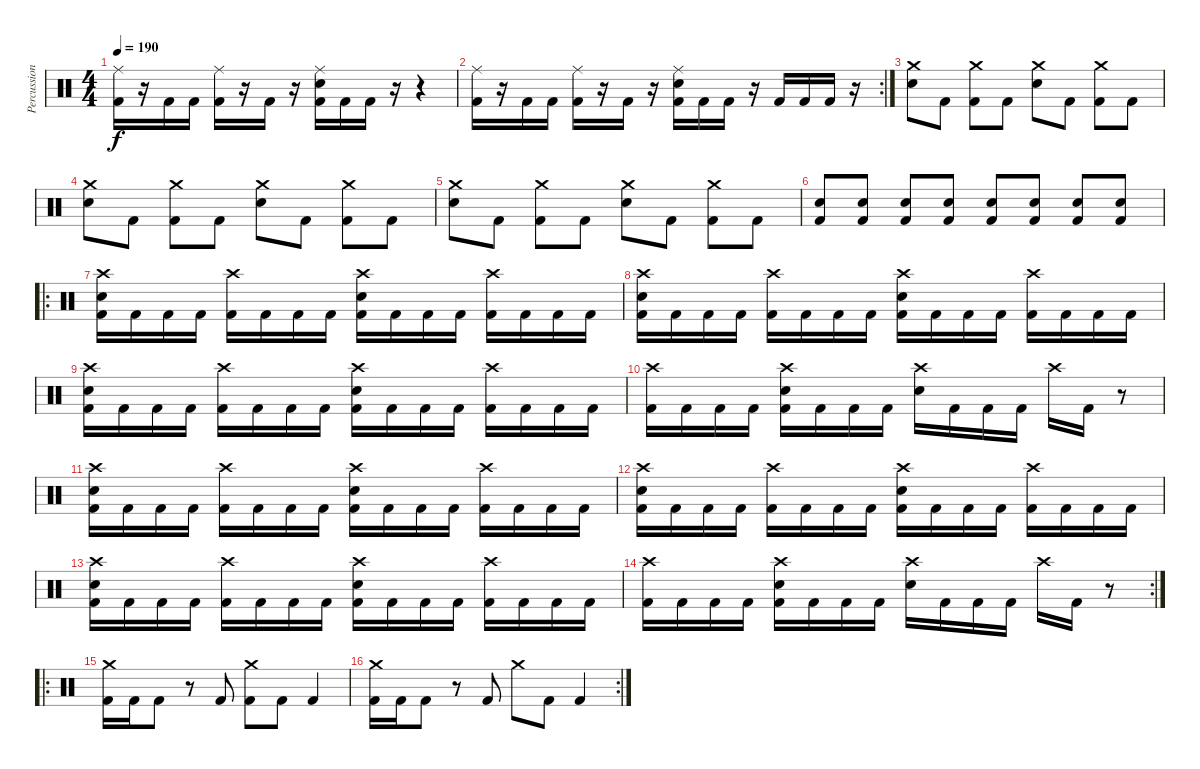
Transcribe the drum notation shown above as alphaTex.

\track ("Percussion" "Percussion") {instrument percussion}
\staff {score}
\articulation defaults
\ts (4 4)
\tempo 190
\clef neutral
\ks c
("Ride (middle)" "Kick (hit) 2").16{dy f} r.16 "Kick (hit) 2".16 "Kick (hit) 2".16 ("Ride (middle)" "Kick (hit) 2").16 r.16 "Kick (hit) 2".16 r.16 ("Ride (middle)" "Electric Snare (hit)" "Kick (hit) 2").16 "Kick (hit) 2".16 "Kick (hit) 2".16 r.16 r.4 |
\rc 2
("Ride (middle)" "Kick (hit) 2").16 r.16 "Kick (hit) 2".16 "Kick (hit) 2".16 ("Ride (middle)" "Kick (hit) 2").16 r.16 "Kick (hit) 2".16 r.16 ("Ride (middle)" "Electric Snare (hit)" "Kick (hit) 2").16 "Kick (hit) 2".16 "Kick (hit) 2".16 r.16 "Kick (hit) 2".16 "Kick (hit) 2".16 "Kick (hit) 2".16 r.16 |
("Crash medium (hit)" "Electric Snare (hit)").8 "Kick (hit) 2".8 ("Crash medium (hit)" "Kick (hit) 2").8 "Kick (hit) 2".8 ("Crash medium (hit)" "Electric Snare (hit)").8 "Kick (hit) 2".8 ("Crash medium (hit)" "Kick (hit) 2").8 "Kick (hit) 2".8 |
("Crash medium (hit)" "Electric Snare (hit)").8 "Kick (hit) 2".8 ("Crash medium (hit)" "Kick (hit) 2").8 "Kick (hit) 2".8 ("Crash medium (hit)" "Electric Snare (hit)").8 "Kick (hit) 2".8 ("Crash medium (hit)" "Kick (hit) 2").8 "Kick (hit) 2".8 |
("Crash medium (hit)" "Electric Snare (hit)").8 "Kick (hit) 2".8 ("Crash medium (hit)" "Kick (hit) 2").8 "Kick (hit) 2".8 ("Crash medium (hit)" "Electric Snare (hit)").8 "Kick (hit) 2".8 ("Crash medium (hit)" "Kick (hit) 2").8 "Kick (hit) 2".8 |
("Electric Snare (hit)" "Kick (hit) 2").8 ("Electric Snare (hit)" "Kick (hit) 2").8 ("Electric Snare (hit)" "Kick (hit) 2").8 ("Electric Snare (hit)" "Kick (hit) 2").8 ("Electric Snare (hit)" "Kick (hit) 2").8 ("Electric Snare (hit)" "Kick (hit) 2").8 ("Electric Snare (hit)" "Kick (hit) 2").8 ("Electric Snare (hit)" "Kick (hit) 2").8 |
\ro
("Crash high (hit)" "Electric Snare (hit)" "Kick (hit) 2").16 "Kick (hit) 2".16 "Kick (hit) 2".16 "Kick (hit) 2".16 ("Crash high (hit)" "Kick (hit) 2").16 "Kick (hit) 2".16 "Kick (hit) 2".16 "Kick (hit) 2".16 ("Crash high (hit)" "Electric Snare (hit)" "Kick (hit) 2").16 "Kick (hit) 2".16 "Kick (hit) 2".16 "Kick (hit) 2".16 ("Crash high (hit)" "Kick (hit) 2").16 "Kick (hit) 2".16 "Kick (hit) 2".16 "Kick (hit) 2".16 |
("Crash high (hit)" "Electric Snare (hit)" "Kick (hit) 2").16 "Kick (hit) 2".16 "Kick (hit) 2".16 "Kick (hit) 2".16 ("Crash high (hit)" "Kick (hit) 2").16 "Kick (hit) 2".16 "Kick (hit) 2".16 "Kick (hit) 2".16 ("Crash high (hit)" "Electric Snare (hit)" "Kick (hit) 2").16 "Kick (hit) 2".16 "Kick (hit) 2".16 "Kick (hit) 2".16 ("Crash high (hit)" "Kick (hit) 2").16 "Kick (hit) 2".16 "Kick (hit) 2".16 "Kick (hit) 2".16 |
("Crash high (hit)" "Electric Snare (hit)" "Kick (hit) 2").16 "Kick (hit) 2".16 "Kick (hit) 2".16 "Kick (hit) 2".16 ("Crash high (hit)" "Kick (hit) 2").16 "Kick (hit) 2".16 "Kick (hit) 2".16 "Kick (hit) 2".16 ("Crash high (hit)" "Electric Snare (hit)" "Kick (hit) 2").16 "Kick (hit) 2".16 "Kick (hit) 2".16 "Kick (hit) 2".16 ("Crash high (hit)" "Kick (hit) 2").16 "Kick (hit) 2".16 "Kick (hit) 2".16 "Kick (hit) 2".16 |
("Crash high (hit)" "Kick (hit) 2").16 "Kick (hit) 2".16 "Kick (hit) 2".16 "Kick (hit) 2".16 ("Crash high (hit)" "Electric Snare (hit)" "Kick (hit) 2").16 "Kick (hit) 2".16 "Kick (hit) 2".16 "Kick (hit) 2".16 ("Crash high (hit)" "Electric Snare (hit)").16 "Kick (hit) 2".16 "Kick (hit) 2".16 "Kick (hit) 2".16 "Crash high (hit)".16 "Kick (hit) 2".16 r.8 |
("Crash high (hit)" "Electric Snare (hit)" "Kick (hit) 2").16 "Kick (hit) 2".16 "Kick (hit) 2".16 "Kick (hit) 2".16 ("Crash high (hit)" "Kick (hit) 2").16 "Kick (hit) 2".16 "Kick (hit) 2".16 "Kick (hit) 2".16 ("Crash high (hit)" "Electric Snare (hit)" "Kick (hit) 2").16 "Kick (hit) 2".16 "Kick (hit) 2".16 "Kick (hit) 2".16 ("Crash high (hit)" "Kick (hit) 2").16 "Kick (hit) 2".16 "Kick (hit) 2".16 "Kick (hit) 2".16 |
("Crash high (hit)" "Electric Snare (hit)" "Kick (hit) 2").16 "Kick (hit) 2".16 "Kick (hit) 2".16 "Kick (hit) 2".16 ("Crash high (hit)" "Kick (hit) 2").16 "Kick (hit) 2".16 "Kick (hit) 2".16 "Kick (hit) 2".16 ("Crash high (hit)" "Electric Snare (hit)" "Kick (hit) 2").16 "Kick (hit) 2".16 "Kick (hit) 2".16 "Kick (hit) 2".16 ("Crash high (hit)" "Kick (hit) 2").16 "Kick (hit) 2".16 "Kick (hit) 2".16 "Kick (hit) 2".16 |
("Crash high (hit)" "Electric Snare (hit)" "Kick (hit) 2").16 "Kick (hit) 2".16 "Kick (hit) 2".16 "Kick (hit) 2".16 ("Crash high (hit)" "Kick (hit) 2").16 "Kick (hit) 2".16 "Kick (hit) 2".16 "Kick (hit) 2".16 ("Crash high (hit)" "Electric Snare (hit)" "Kick (hit) 2").16 "Kick (hit) 2".16 "Kick (hit) 2".16 "Kick (hit) 2".16 ("Crash high (hit)" "Kick (hit) 2").16 "Kick (hit) 2".16 "Kick (hit) 2".16 "Kick (hit) 2".16 |
\rc 2
("Crash high (hit)" "Kick (hit) 2").16 "Kick (hit) 2".16 "Kick (hit) 2".16 "Kick (hit) 2".16 ("Crash high (hit)" "Electric Snare (hit)" "Kick (hit) 2").16 "Kick (hit) 2".16 "Kick (hit) 2".16 "Kick (hit) 2".16 ("Crash high (hit)" "Electric Snare (hit)").16 "Kick (hit) 2".16 "Kick (hit) 2".16 "Kick (hit) 2".16 "Crash high (hit)".16 "Kick (hit) 2".16 r.8 |
\ro
("Crash medium (hit)" "Kick (hit) 2").16 "Kick (hit) 2".16 "Kick (hit) 2".8 r.8 "Kick (hit) 2".8 ("Crash medium (hit)" "Kick (hit) 2").8 "Kick (hit) 2".8 "Kick (hit) 2".4 |
\rc 2
("Crash medium (hit)" "Kick (hit) 2").16 "Kick (hit) 2".16 "Kick (hit) 2".8 r.8 "Kick (hit) 2".8 "Crash medium (hit)".8 "Kick (hit) 2".8 "Kick (hit) 2".4
